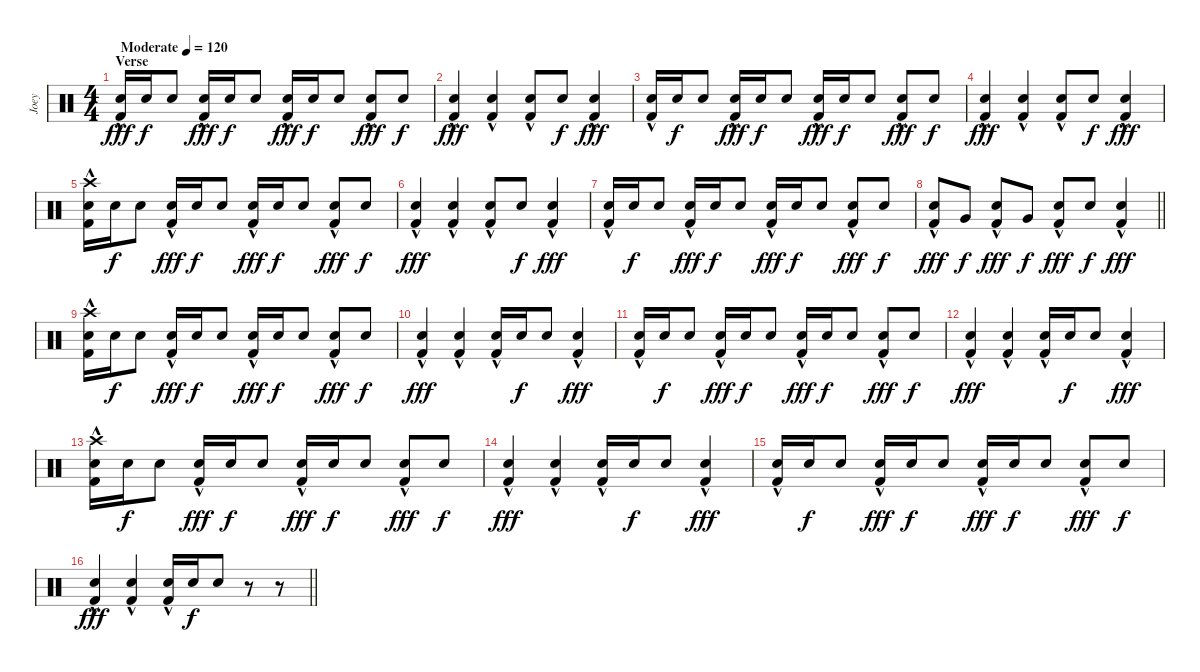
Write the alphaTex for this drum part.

\track ("Joey" "Joey") {instrument percussion}
\staff {score}
\articulation defaults
\ts (4 4)
\section ("" "Verse")
\tempo (120 "Moderate")
\clef neutral
\ks c
("Electric Snare (hit)"{hac} "Kick (hit) 2"{hac}).16{dy fff} "Electric Snare (hit)".16{dy f} "Electric Snare (hit)".8 ("Electric Snare (hit)"{hac} "Kick (hit) 2"{hac}).16{dy fff} "Electric Snare (hit)".16{dy f} "Electric Snare (hit)".8 ("Electric Snare (hit)"{hac} "Kick (hit) 2"{hac}).16{dy fff} "Electric Snare (hit)".16{dy f} "Electric Snare (hit)".8 ("Electric Snare (hit)" "Kick (hit) 2"{hac}).8{dy fff} "Electric Snare (hit)".8{dy f} |
("Electric Snare (hit)" "Kick (hit) 2"{hac}).4{dy fff} ("Electric Snare (hit)" "Kick (hit) 2"{hac}).4 ("Electric Snare (hit)" "Kick (hit) 2"{hac}).8 "Electric Snare (hit)".8{dy f} ("Electric Snare (hit)"{hac} "Kick (hit) 2"{hac}).4{dy fff} |
("Electric Snare (hit)"{hac} "Kick (hit) 2"{hac}).16 "Electric Snare (hit)".16{dy f} "Electric Snare (hit)".8 ("Electric Snare (hit)"{hac} "Kick (hit) 2"{hac}).16{dy fff} "Electric Snare (hit)".16{dy f} "Electric Snare (hit)".8 ("Electric Snare (hit)"{hac} "Kick (hit) 2"{hac}).16{dy fff} "Electric Snare (hit)".16{dy f} "Electric Snare (hit)".8 ("Electric Snare (hit)" "Kick (hit) 2"{hac}).8{dy fff} "Electric Snare (hit)".8{dy f} |
("Electric Snare (hit)" "Kick (hit) 2"{hac}).4{dy fff} ("Electric Snare (hit)" "Kick (hit) 2"{hac}).4 ("Electric Snare (hit)" "Kick (hit) 2"{hac}).8 "Electric Snare (hit)".8{dy f} ("Electric Snare (hit)"{hac} "Kick (hit) 2"{hac}).4{dy fff} |
("Crash high (hit)" "Electric Snare (hit)"{hac} "Kick (hit) 2"{hac}).16 "Electric Snare (hit)".16{dy f} "Electric Snare (hit)".8 ("Electric Snare (hit)"{hac} "Kick (hit) 2"{hac}).16{dy fff} "Electric Snare (hit)".16{dy f} "Electric Snare (hit)".8 ("Electric Snare (hit)"{hac} "Kick (hit) 2"{hac}).16{dy fff} "Electric Snare (hit)".16{dy f} "Electric Snare (hit)".8 ("Electric Snare (hit)" "Kick (hit) 2"{hac}).8{dy fff} "Electric Snare (hit)".8{dy f} |
("Electric Snare (hit)" "Kick (hit) 2"{hac}).4{dy fff} ("Electric Snare (hit)" "Kick (hit) 2"{hac}).4 ("Electric Snare (hit)" "Kick (hit) 2"{hac}).8 "Electric Snare (hit)".8{dy f} ("Electric Snare (hit)"{hac} "Kick (hit) 2"{hac}).4{dy fff} |
("Electric Snare (hit)"{hac} "Kick (hit) 2"{hac}).16 "Electric Snare (hit)".16{dy f} "Electric Snare (hit)".8 ("Electric Snare (hit)"{hac} "Kick (hit) 2"{hac}).16{dy fff} "Electric Snare (hit)".16{dy f} "Electric Snare (hit)".8 ("Electric Snare (hit)"{hac} "Kick (hit) 2"{hac}).16{dy fff} "Electric Snare (hit)".16{dy f} "Electric Snare (hit)".8 ("Electric Snare (hit)" "Kick (hit) 2"{hac}).8{dy fff} "Electric Snare (hit)".8{dy f} |
\barLineRight lightlight
("Electric Snare (hit)" "Kick (hit) 2"{hac}).8{dy fff} "Very Low Tom (hit)".8{dy f} ("Electric Snare (hit)" "Kick (hit) 2"{hac}).8{dy fff} "Very Low Tom (hit)".8{dy f} ("Electric Snare (hit)" "Kick (hit) 2"{hac}).8{dy fff} "Electric Snare (hit)".8{dy f} ("Electric Snare (hit)"{hac} "Kick (hit) 2"{hac}).4{dy fff} |
\section ("" "")
("Crash high (hit)" "Electric Snare (hit)"{hac} "Kick (hit) 2"{hac}).16 "Electric Snare (hit)".16{dy f} "Electric Snare (hit)".8 ("Electric Snare (hit)"{hac} "Kick (hit) 2"{hac}).16{dy fff} "Electric Snare (hit)".16{dy f} "Electric Snare (hit)".8 ("Electric Snare (hit)"{hac} "Kick (hit) 2"{hac}).16{dy fff} "Electric Snare (hit)".16{dy f} "Electric Snare (hit)".8 ("Electric Snare (hit)" "Kick (hit) 2"{hac}).8{dy fff} "Electric Snare (hit)".8{dy f} |
("Electric Snare (hit)" "Kick (hit) 2"{hac}).4{dy fff} ("Electric Snare (hit)" "Kick (hit) 2"{hac}).4 ("Electric Snare (hit)" "Kick (hit) 2"{hac}).16 "Electric Snare (hit)".16{dy f} "Electric Snare (hit)".8 ("Electric Snare (hit)"{hac} "Kick (hit) 2"{hac}).4{dy fff} |
("Electric Snare (hit)"{hac} "Kick (hit) 2"{hac}).16 "Electric Snare (hit)".16{dy f} "Electric Snare (hit)".8 ("Electric Snare (hit)"{hac} "Kick (hit) 2"{hac}).16{dy fff} "Electric Snare (hit)".16{dy f} "Electric Snare (hit)".8 ("Electric Snare (hit)"{hac} "Kick (hit) 2"{hac}).16{dy fff} "Electric Snare (hit)".16{dy f} "Electric Snare (hit)".8 ("Electric Snare (hit)" "Kick (hit) 2"{hac}).8{dy fff} "Electric Snare (hit)".8{dy f} |
("Electric Snare (hit)" "Kick (hit) 2"{hac}).4{dy fff} ("Electric Snare (hit)" "Kick (hit) 2"{hac}).4 ("Electric Snare (hit)" "Kick (hit) 2"{hac}).16 "Electric Snare (hit)".16{dy f} "Electric Snare (hit)".8 ("Electric Snare (hit)"{hac} "Kick (hit) 2"{hac}).4{dy fff} |
("Crash high (hit)" "Electric Snare (hit)"{hac} "Kick (hit) 2"{hac}).16 "Electric Snare (hit)".16{dy f} "Electric Snare (hit)".8 ("Electric Snare (hit)"{hac} "Kick (hit) 2"{hac}).16{dy fff} "Electric Snare (hit)".16{dy f} "Electric Snare (hit)".8 ("Electric Snare (hit)"{hac} "Kick (hit) 2"{hac}).16{dy fff} "Electric Snare (hit)".16{dy f} "Electric Snare (hit)".8 ("Electric Snare (hit)" "Kick (hit) 2"{hac}).8{dy fff} "Electric Snare (hit)".8{dy f} |
("Electric Snare (hit)" "Kick (hit) 2"{hac}).4{dy fff} ("Electric Snare (hit)" "Kick (hit) 2"{hac}).4 ("Electric Snare (hit)" "Kick (hit) 2"{hac}).16 "Electric Snare (hit)".16{dy f} "Electric Snare (hit)".8 ("Electric Snare (hit)"{hac} "Kick (hit) 2"{hac}).4{dy fff} |
("Electric Snare (hit)"{hac} "Kick (hit) 2"{hac}).16 "Electric Snare (hit)".16{dy f} "Electric Snare (hit)".8 ("Electric Snare (hit)"{hac} "Kick (hit) 2"{hac}).16{dy fff} "Electric Snare (hit)".16{dy f} "Electric Snare (hit)".8 ("Electric Snare (hit)"{hac} "Kick (hit) 2"{hac}).16{dy fff} "Electric Snare (hit)".16{dy f} "Electric Snare (hit)".8 ("Electric Snare (hit)" "Kick (hit) 2"{hac}).8{dy fff} "Electric Snare (hit)".8{dy f} |
\barLineRight lightlight
("Electric Snare (hit)" "Kick (hit) 2"{hac}).4{dy fff} ("Electric Snare (hit)" "Kick (hit) 2"{hac}).4 ("Electric Snare (hit)" "Kick (hit) 2"{hac}).16 "Electric Snare (hit)".16{dy f} "Electric Snare (hit)".8 r.8 r.8
